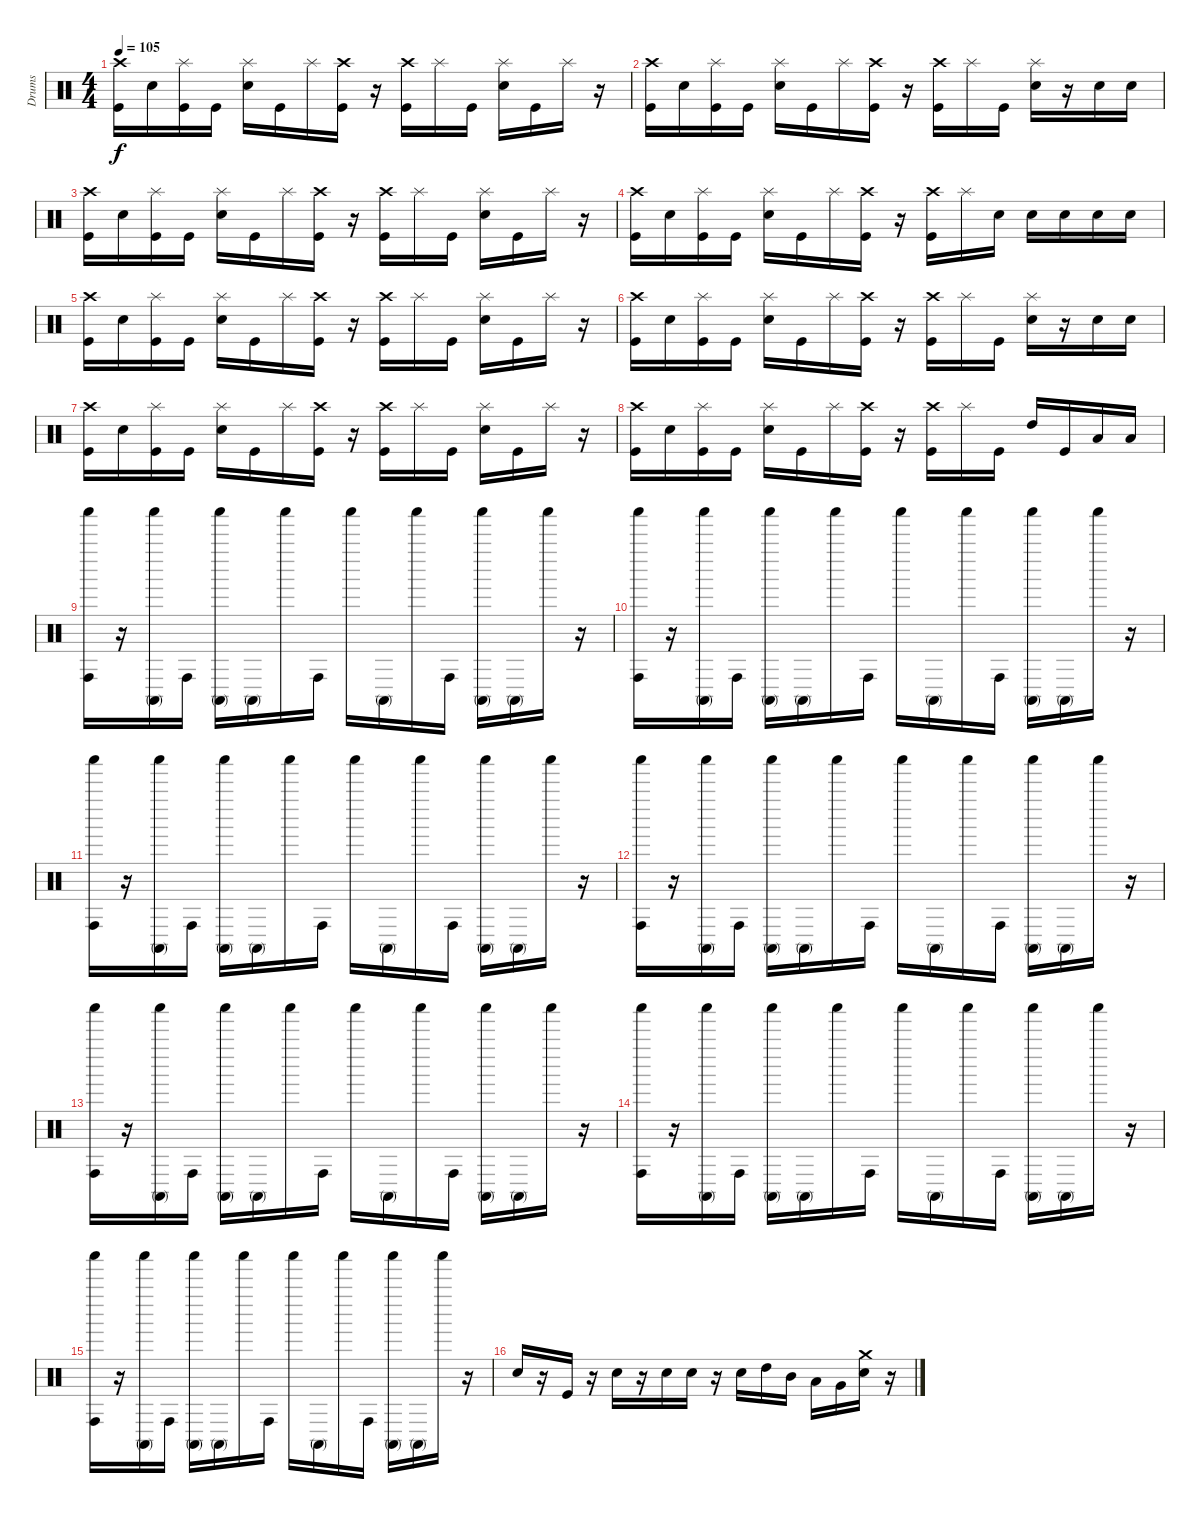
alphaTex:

\track ("Drums" "Drums") {instrument percussion}
\staff {score}
\articulation defaults
\ts (4 4)
\tempo 105
\clef neutral
\ks c
("Crash high (hit)" "Kick (hit)").16{dy f} "Electric Snare (hit)".16 ("Splash (hit)" "Kick (hit)").16 "Kick (hit)".16 ("Splash (hit)" "Electric Snare (hit)").16 "Kick (hit)".16 "Splash (hit)".16 ("Crash high (hit)" "Kick (hit)").16 r.16 ("Crash high (hit)" "Kick (hit)").16 "Splash (hit)".16 "Kick (hit)".16 ("Splash (hit)" "Electric Snare (hit)").16 "Kick (hit)".16 "Splash (hit)".16 r.16 |
("Crash high (hit)" "Kick (hit)").16 "Electric Snare (hit)".16 ("Splash (hit)" "Kick (hit)").16 "Kick (hit)".16 ("Splash (hit)" "Electric Snare (hit)").16 "Kick (hit)".16 "Splash (hit)".16 ("Crash high (hit)" "Kick (hit)").16 r.16 ("Crash high (hit)" "Kick (hit)").16 "Splash (hit)".16 "Kick (hit)".16 ("Splash (hit)" "Electric Snare (hit)").16 r.16 "Electric Snare (hit)".16 "Electric Snare (hit)".16 |
("Crash high (hit)" "Kick (hit)").16 "Electric Snare (hit)".16 ("Splash (hit)" "Kick (hit)").16 "Kick (hit)".16 ("Splash (hit)" "Electric Snare (hit)").16 "Kick (hit)".16 "Splash (hit)".16 ("Crash high (hit)" "Kick (hit)").16 r.16 ("Crash high (hit)" "Kick (hit)").16 "Splash (hit)".16 "Kick (hit)".16 ("Splash (hit)" "Electric Snare (hit)").16 "Kick (hit)".16 "Splash (hit)".16 r.16 |
("Crash high (hit)" "Kick (hit)").16 "Electric Snare (hit)".16 ("Splash (hit)" "Kick (hit)").16 "Kick (hit)".16 ("Splash (hit)" "Electric Snare (hit)").16 "Kick (hit)".16 "Splash (hit)".16 ("Crash high (hit)" "Kick (hit)").16 r.16 ("Crash high (hit)" "Kick (hit)").16 "Splash (hit)".16 "Electric Snare (hit)".16 "Electric Snare (hit)".16 "Electric Snare (hit)".16 "Electric Snare (hit)".16 "Electric Snare (hit)".16 |
("Crash high (hit)" "Kick (hit)").16 "Electric Snare (hit)".16 ("Splash (hit)" "Kick (hit)").16 "Kick (hit)".16 ("Splash (hit)" "Electric Snare (hit)").16 "Kick (hit)".16 "Splash (hit)".16 ("Crash high (hit)" "Kick (hit)").16 r.16 ("Crash high (hit)" "Kick (hit)").16 "Splash (hit)".16 "Kick (hit)".16 ("Splash (hit)" "Electric Snare (hit)").16 "Kick (hit)".16 "Splash (hit)".16 r.16 |
("Crash high (hit)" "Kick (hit)").16 "Electric Snare (hit)".16 ("Splash (hit)" "Kick (hit)").16 "Kick (hit)".16 ("Splash (hit)" "Electric Snare (hit)").16 "Kick (hit)".16 "Splash (hit)".16 ("Crash high (hit)" "Kick (hit)").16 r.16 ("Crash high (hit)" "Kick (hit)").16 "Splash (hit)".16 "Kick (hit)".16 ("Splash (hit)" "Electric Snare (hit)").16 r.16 "Electric Snare (hit)".16 "Electric Snare (hit)".16 |
("Crash high (hit)" "Kick (hit)").16 "Electric Snare (hit)".16 ("Splash (hit)" "Kick (hit)").16 "Kick (hit)".16 ("Splash (hit)" "Electric Snare (hit)").16 "Kick (hit)".16 "Splash (hit)".16 ("Crash high (hit)" "Kick (hit)").16 r.16 ("Crash high (hit)" "Kick (hit)").16 "Splash (hit)".16 "Kick (hit)".16 ("Splash (hit)" "Electric Snare (hit)").16 "Kick (hit)".16 "Splash (hit)".16 r.16 |
("Crash high (hit)" "Kick (hit)").16 "Electric Snare (hit)".16 ("Splash (hit)" "Kick (hit)").16 "Kick (hit)".16 ("Splash (hit)" "Electric Snare (hit)").16 "Kick (hit)".16 "Splash (hit)".16 ("Crash high (hit)" "Kick (hit)").16 r.16 ("Crash high (hit)" "Kick (hit)").16 "Splash (hit)".16 "Kick (hit)".16 "High Tom (hit)".16 "Kick (hit)".16 "Low Tom (hit)".16 "Low Floor Tom (hit)".16 |
("Shaker (hit)" "Conga high (hit)").16{volume 16} r.16 ("Shaker (hit)" "Conga high (mute)").16 "Conga high (hit)".16 ("Shaker (hit)" "Conga high (mute)").16 "Conga high (mute)".16 "Shaker (hit)".16 "Conga high (hit)".16 "Shaker (hit)".16 "Conga high (mute)".16 "Shaker (hit)".16 "Conga high (hit)".16 ("Shaker (hit)" "Conga high (mute)").16 "Conga high (mute)".16 "Shaker (hit)".16 r.16 |
("Shaker (hit)" "Conga high (hit)").16{volume 16} r.16 ("Shaker (hit)" "Conga high (mute)").16 "Conga high (hit)".16 ("Shaker (hit)" "Conga high (mute)").16 "Conga high (mute)".16 "Shaker (hit)".16 "Conga high (hit)".16 "Shaker (hit)".16 "Conga high (mute)".16 "Shaker (hit)".16 "Conga high (hit)".16 ("Shaker (hit)" "Conga high (mute)").16 "Conga high (mute)".16 "Shaker (hit)".16 r.16 |
("Shaker (hit)" "Conga high (hit)").16{volume 16} r.16 ("Shaker (hit)" "Conga high (mute)").16 "Conga high (hit)".16 ("Shaker (hit)" "Conga high (mute)").16 "Conga high (mute)".16 "Shaker (hit)".16 "Conga high (hit)".16 "Shaker (hit)".16 "Conga high (mute)".16 "Shaker (hit)".16 "Conga high (hit)".16 ("Shaker (hit)" "Conga high (mute)").16 "Conga high (mute)".16 "Shaker (hit)".16 r.16 |
("Shaker (hit)" "Conga high (hit)").16{volume 16} r.16 ("Shaker (hit)" "Conga high (mute)").16 "Conga high (hit)".16 ("Shaker (hit)" "Conga high (mute)").16 "Conga high (mute)".16 "Shaker (hit)".16 "Conga high (hit)".16 "Shaker (hit)".16 "Conga high (mute)".16 "Shaker (hit)".16 "Conga high (hit)".16 ("Shaker (hit)" "Conga high (mute)").16 "Conga high (mute)".16 "Shaker (hit)".16 r.16 |
("Shaker (hit)" "Conga high (hit)").16{volume 16} r.16 ("Shaker (hit)" "Conga high (mute)").16 "Conga high (hit)".16 ("Shaker (hit)" "Conga high (mute)").16 "Conga high (mute)".16 "Shaker (hit)".16 "Conga high (hit)".16 "Shaker (hit)".16 "Conga high (mute)".16 "Shaker (hit)".16 "Conga high (hit)".16 ("Shaker (hit)" "Conga high (mute)").16 "Conga high (mute)".16 "Shaker (hit)".16 r.16 |
("Shaker (hit)" "Conga high (hit)").16{volume 16} r.16 ("Shaker (hit)" "Conga high (mute)").16 "Conga high (hit)".16 ("Shaker (hit)" "Conga high (mute)").16 "Conga high (mute)".16 "Shaker (hit)".16 "Conga high (hit)".16 "Shaker (hit)".16 "Conga high (mute)".16 "Shaker (hit)".16 "Conga high (hit)".16 ("Shaker (hit)" "Conga high (mute)").16 "Conga high (mute)".16 "Shaker (hit)".16 r.16 |
("Shaker (hit)" "Conga high (hit)").16{volume 16} r.16 ("Shaker (hit)" "Conga high (mute)").16 "Conga high (hit)".16 ("Shaker (hit)" "Conga high (mute)").16 "Conga high (mute)".16 "Shaker (hit)".16 "Conga high (hit)".16 "Shaker (hit)".16 "Conga high (mute)".16 "Shaker (hit)".16 "Conga high (hit)".16 ("Shaker (hit)" "Conga high (mute)").16 "Conga high (mute)".16 "Shaker (hit)".16 r.16 |
"Electric Snare (hit)".16 r.16 "Kick (hit)".16 r.16 "Electric Snare (hit)".16 r.16 "Electric Snare (hit)".16 "Electric Snare (hit)".16 r.16 "Electric Snare (hit)".16 "High Tom (hit)".16 "Mid Tom (hit)".16 "Low Tom (hit)".16 "Very Low Tom (hit)".16 ("Crash medium (hit)" "Electric Snare (hit)").16 r.16
